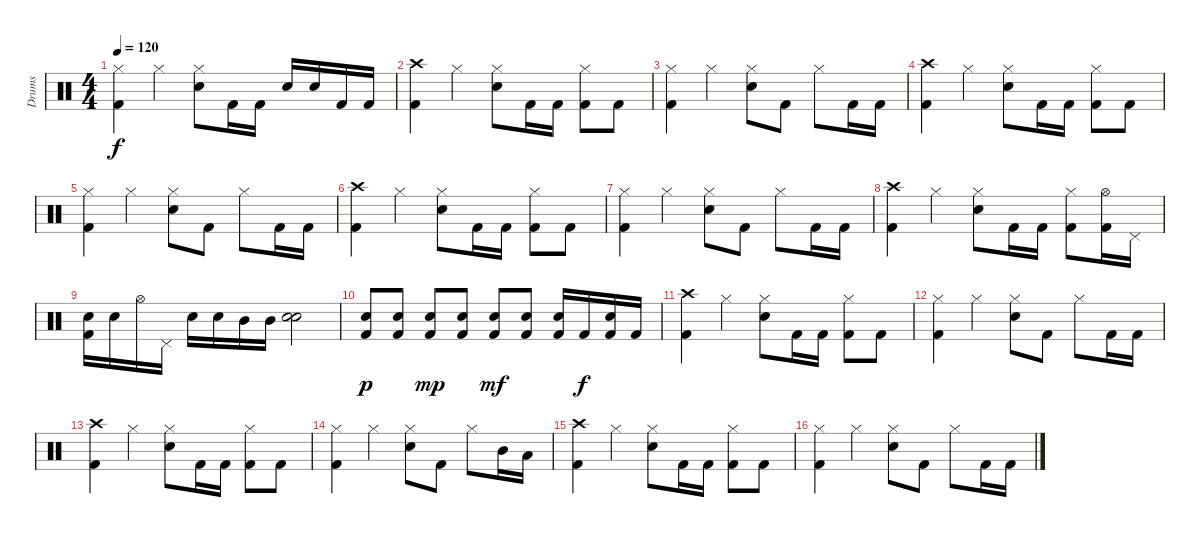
\track ("Drums" "Drums") {instrument percussion}
\staff {score}
\articulation defaults
\ts (4 4)
\tempo 120
\clef neutral
\ks c
("Hi-Hat (closed)" "Kick (hit) 2").4{dy f} "Hi-Hat (closed)".4 ("Hi-Hat (closed)" "Electric Snare (hit)").8 "Kick (hit) 2".16 "Kick (hit) 2".16 "Electric Snare (hit)".16 "Electric Snare (hit)".16 "Kick (hit) 2".16 "Kick (hit) 2".16 |
("Crash high (hit)" "Kick (hit) 2").4 "Hi-Hat (closed)".4 ("Hi-Hat (closed)" "Electric Snare (hit)").8 "Kick (hit) 2".16 "Kick (hit) 2".16 ("Hi-Hat (closed)" "Kick (hit) 2").8 "Kick (hit) 2".8 |
("Hi-Hat (closed)" "Kick (hit) 2").4 "Hi-Hat (closed)".4 ("Hi-Hat (closed)" "Electric Snare (hit)").8 "Kick (hit) 2".8 "Hi-Hat (closed)".8 "Kick (hit) 2".16 "Kick (hit) 2".16 |
("Crash high (hit)" "Kick (hit) 2").4 "Hi-Hat (closed)".4 ("Hi-Hat (closed)" "Electric Snare (hit)").8 "Kick (hit) 2".16 "Kick (hit) 2".16 ("Hi-Hat (closed)" "Kick (hit) 2").8 "Kick (hit) 2".8 |
("Hi-Hat (closed)" "Kick (hit) 2").4 "Hi-Hat (closed)".4 ("Hi-Hat (closed)" "Electric Snare (hit)").8 "Kick (hit) 2".8 "Hi-Hat (closed)".8 "Kick (hit) 2".16 "Kick (hit) 2".16 |
("Crash high (hit)" "Kick (hit) 2").4 "Hi-Hat (closed)".4 ("Hi-Hat (closed)" "Electric Snare (hit)").8 "Kick (hit) 2".16 "Kick (hit) 2".16 ("Hi-Hat (closed)" "Kick (hit) 2").8 "Kick (hit) 2".8 |
("Hi-Hat (closed)" "Kick (hit) 2").4 "Hi-Hat (closed)".4 ("Hi-Hat (closed)" "Electric Snare (hit)").8 "Kick (hit) 2".8 "Hi-Hat (closed)".8 "Kick (hit) 2".16 "Kick (hit) 2".16 |
("Crash high (hit)" "Kick (hit) 2").4 "Hi-Hat (closed)".4 ("Hi-Hat (closed)" "Electric Snare (hit)").8 "Kick (hit) 2".16 "Kick (hit) 2".16 ("Hi-Hat (closed)" "Kick (hit) 2").8 ("Hi-Hat (open)" "Kick (hit) 2").16 "Pedal Hi-Hat (hit)".16 |
("Electric Snare (hit)" "Kick (hit) 2").16 "Electric Snare (hit)".16 "Hi-Hat (open)".16 "Pedal Hi-Hat (hit)".16 "Electric Snare (hit)".16 "Electric Snare (hit)".16 "Mid Tom (hit)".16 "Mid Tom (hit)".16 ("Electric Snare (hit)" "Electric Snare (hit)").2{bd 240} |
("Electric Snare (hit)" "Kick (hit) 2").8{dy p} ("Electric Snare (hit)" "Kick (hit) 2").8 ("Electric Snare (hit)" "Kick (hit) 2").8{dy mp} ("Electric Snare (hit)" "Kick (hit) 2").8 ("Electric Snare (hit)" "Kick (hit) 2").8{dy mf} ("Electric Snare (hit)" "Kick (hit) 2").8 ("Electric Snare (hit)" "Kick (hit) 2").16 "Kick (hit) 2".16{dy f} ("Electric Snare (hit)" "Kick (hit) 2").16 "Kick (hit) 2".16 |
("Crash high (hit)" "Kick (hit) 2").4 "Hi-Hat (closed)".4 ("Hi-Hat (closed)" "Electric Snare (hit)").8 "Kick (hit) 2".16 "Kick (hit) 2".16 ("Hi-Hat (closed)" "Kick (hit) 2").8 "Kick (hit) 2".8 |
("Hi-Hat (closed)" "Kick (hit) 2").4 "Hi-Hat (closed)".4 ("Hi-Hat (closed)" "Electric Snare (hit)").8 "Kick (hit) 2".8 "Hi-Hat (closed)".8 "Kick (hit) 2".16 "Kick (hit) 2".16 |
("Crash high (hit)" "Kick (hit) 2").4 "Hi-Hat (closed)".4 ("Hi-Hat (closed)" "Electric Snare (hit)").8 "Kick (hit) 2".16 "Kick (hit) 2".16 ("Hi-Hat (closed)" "Kick (hit) 2").8 "Kick (hit) 2".8 |
("Hi-Hat (closed)" "Kick (hit) 2").4 "Hi-Hat (closed)".4 ("Hi-Hat (closed)" "Electric Snare (hit)").8 "Kick (hit) 2".8 "Hi-Hat (closed)".8 "Mid Tom (hit)".16 "Low Tom (hit)".16 |
("Crash high (hit)" "Kick (hit) 2").4 "Hi-Hat (closed)".4 ("Hi-Hat (closed)" "Electric Snare (hit)").8 "Kick (hit) 2".16 "Kick (hit) 2".16 ("Hi-Hat (closed)" "Kick (hit) 2").8 "Kick (hit) 2".8 |
("Hi-Hat (closed)" "Kick (hit) 2").4 "Hi-Hat (closed)".4 ("Hi-Hat (closed)" "Electric Snare (hit)").8 "Kick (hit) 2".8 "Hi-Hat (closed)".8 "Kick (hit) 2".16 "Kick (hit) 2".16
